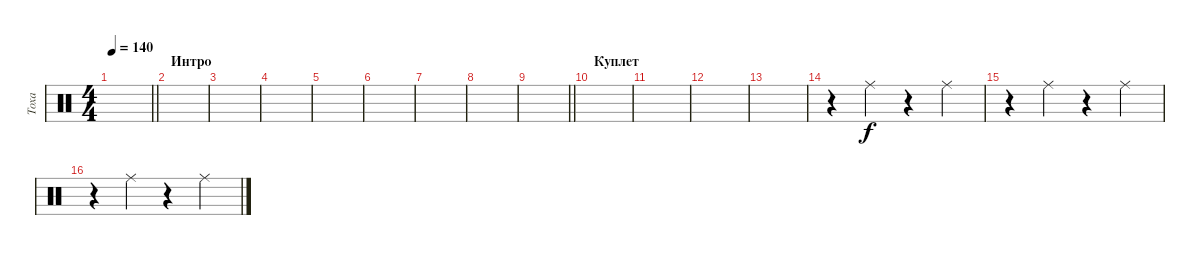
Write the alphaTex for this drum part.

\track ("Тоха" "Тоха") {instrument percussion}
\staff {score}
\articulation defaults
\ts (4 4)
\tempo 140
\clef neutral
\barLineRight lightlight
\ks c
|
\section ("" "Интро")
|
|
|
|
|
|
|
\barLineRight lightlight
|
\section ("" "Куплет")
|
|
|
|
r.4{volume 6} "Ride (middle)".4 r.4 "Ride (middle)".4 |
r.4 "Ride (middle)".4 r.4 "Ride (middle)".4 |
r.4 "Ride (middle)".4 r.4 "Ride (middle)".4
